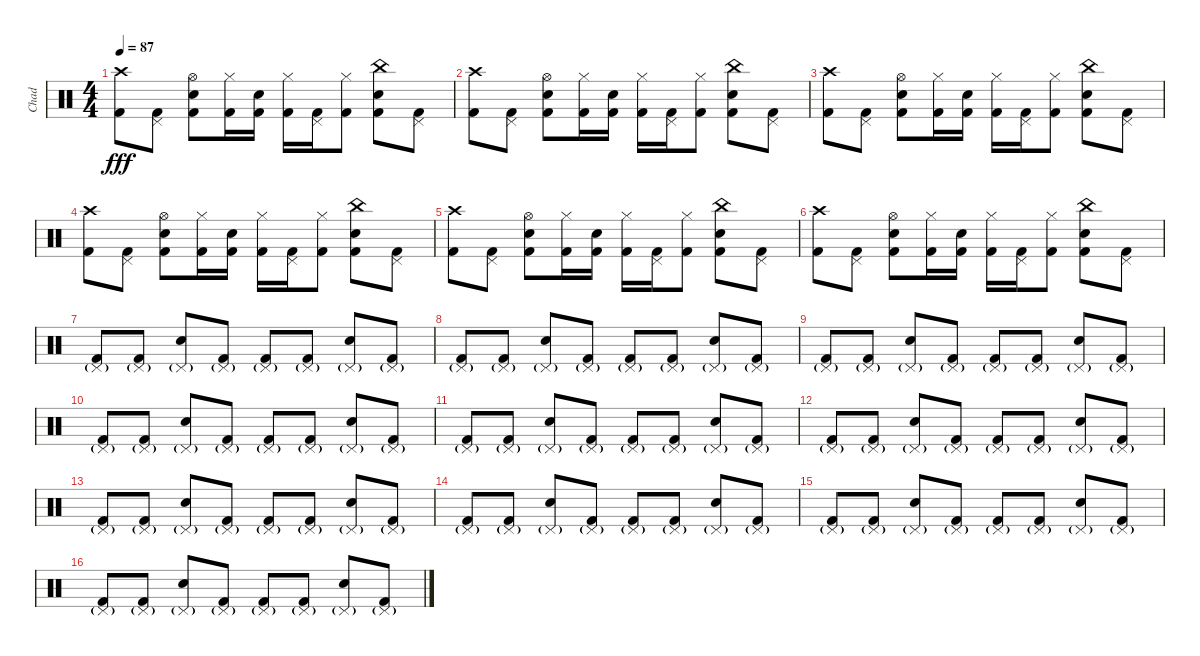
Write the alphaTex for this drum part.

\track ("Chad" "Chad") {instrument percussion}
\staff {score}
\articulation defaults
\ts (4 4)
\tempo 87
\clef neutral
\ks c
("Crash high (hit)" "Kick (hit) 2").8{dy fff} ("Pedal Hi-Hat (hit)" "Kick (hit) 2").8 ("Hi-Hat (open)" "Snare (hit) 2" "Kick (hit) 2").8 ("Hi-Hat (closed)" "Kick (hit) 2").16 ("Snare (hit) 2" "Kick (hit) 2").16 ("Hi-Hat (closed)" "Kick (hit) 2").16 ("Pedal Hi-Hat (hit)" "Kick (hit) 2").16 ("Hi-Hat (closed)" "Kick (hit) 2").8 ("China (hit)" "Snare (hit) 2" "Kick (hit) 2").8 ("Pedal Hi-Hat (hit)" "Kick (hit) 2").8 |
("Crash high (hit)" "Kick (hit) 2").8 ("Pedal Hi-Hat (hit)" "Kick (hit) 2").8 ("Hi-Hat (open)" "Snare (hit) 2" "Kick (hit) 2").8 ("Hi-Hat (closed)" "Kick (hit) 2").16 ("Snare (hit) 2" "Kick (hit) 2").16 ("Hi-Hat (closed)" "Kick (hit) 2").16 ("Pedal Hi-Hat (hit)" "Kick (hit) 2").16 ("Hi-Hat (closed)" "Kick (hit) 2").8 ("China (hit)" "Snare (hit) 2" "Kick (hit) 2").8 ("Pedal Hi-Hat (hit)" "Kick (hit) 2").8 |
("Crash high (hit)" "Kick (hit) 2").8 ("Pedal Hi-Hat (hit)" "Kick (hit) 2").8 ("Hi-Hat (open)" "Snare (hit) 2" "Kick (hit) 2").8 ("Hi-Hat (closed)" "Kick (hit) 2").16 ("Snare (hit) 2" "Kick (hit) 2").16 ("Hi-Hat (closed)" "Kick (hit) 2").16 ("Pedal Hi-Hat (hit)" "Kick (hit) 2").16 ("Hi-Hat (closed)" "Kick (hit) 2").8 ("China (hit)" "Snare (hit) 2" "Kick (hit) 2").8 ("Pedal Hi-Hat (hit)" "Kick (hit) 2").8 |
("Crash high (hit)" "Kick (hit) 2").8 ("Pedal Hi-Hat (hit)" "Kick (hit) 2").8 ("Hi-Hat (open)" "Snare (hit) 2" "Kick (hit) 2").8 ("Hi-Hat (closed)" "Kick (hit) 2").16 ("Snare (hit) 2" "Kick (hit) 2").16 ("Hi-Hat (closed)" "Kick (hit) 2").16 ("Pedal Hi-Hat (hit)" "Kick (hit) 2").16 ("Hi-Hat (closed)" "Kick (hit) 2").8 ("China (hit)" "Snare (hit) 2" "Kick (hit) 2").8 ("Pedal Hi-Hat (hit)" "Kick (hit) 2").8 |
("Crash high (hit)" "Kick (hit) 2").8 ("Pedal Hi-Hat (hit)" "Kick (hit) 2").8 ("Hi-Hat (open)" "Snare (hit) 2" "Kick (hit) 2").8 ("Hi-Hat (closed)" "Kick (hit) 2").16 ("Snare (hit) 2" "Kick (hit) 2").16 ("Hi-Hat (closed)" "Kick (hit) 2").16 ("Pedal Hi-Hat (hit)" "Kick (hit) 2").16 ("Hi-Hat (closed)" "Kick (hit) 2").8 ("China (hit)" "Snare (hit) 2" "Kick (hit) 2").8 ("Pedal Hi-Hat (hit)" "Kick (hit) 2").8 |
("Crash high (hit)" "Kick (hit) 2").8 ("Pedal Hi-Hat (hit)" "Kick (hit) 2").8 ("Hi-Hat (open)" "Snare (hit) 2" "Kick (hit) 2").8 ("Hi-Hat (closed)" "Kick (hit) 2").16 ("Snare (hit) 2" "Kick (hit) 2").16 ("Hi-Hat (closed)" "Kick (hit) 2").16 ("Pedal Hi-Hat (hit)" "Kick (hit) 2").16 ("Hi-Hat (closed)" "Kick (hit) 2").8 ("China (hit)" "Snare (hit) 2" "Kick (hit) 2").8 ("Pedal Hi-Hat (hit)" "Kick (hit) 2").8 |
("Pedal Hi-Hat (hit)"{g} "Kick (hit) 2").8 ("Pedal Hi-Hat (hit)"{g} "Kick (hit) 2").8 ("Pedal Hi-Hat (hit)"{g} "Snare (hit) 2").8 ("Pedal Hi-Hat (hit)"{g} "Kick (hit) 2").8 ("Pedal Hi-Hat (hit)"{g} "Kick (hit) 2").8 ("Pedal Hi-Hat (hit)"{g} "Kick (hit) 2").8 ("Pedal Hi-Hat (hit)"{g} "Snare (hit) 2").8 ("Pedal Hi-Hat (hit)"{g} "Kick (hit) 2").8 |
("Pedal Hi-Hat (hit)"{g} "Kick (hit) 2").8 ("Pedal Hi-Hat (hit)"{g} "Kick (hit) 2").8 ("Pedal Hi-Hat (hit)"{g} "Snare (hit) 2").8 ("Pedal Hi-Hat (hit)"{g} "Kick (hit) 2").8 ("Pedal Hi-Hat (hit)"{g} "Kick (hit) 2").8 ("Pedal Hi-Hat (hit)"{g} "Kick (hit) 2").8 ("Pedal Hi-Hat (hit)"{g} "Snare (hit) 2").8 ("Pedal Hi-Hat (hit)"{g} "Kick (hit) 2").8 |
("Pedal Hi-Hat (hit)"{g} "Kick (hit) 2").8 ("Pedal Hi-Hat (hit)"{g} "Kick (hit) 2").8 ("Pedal Hi-Hat (hit)"{g} "Snare (hit) 2").8 ("Pedal Hi-Hat (hit)"{g} "Kick (hit) 2").8 ("Pedal Hi-Hat (hit)"{g} "Kick (hit) 2").8 ("Pedal Hi-Hat (hit)"{g} "Kick (hit) 2").8 ("Pedal Hi-Hat (hit)"{g} "Snare (hit) 2").8 ("Pedal Hi-Hat (hit)"{g} "Kick (hit) 2").8 |
("Pedal Hi-Hat (hit)"{g} "Kick (hit) 2").8 ("Pedal Hi-Hat (hit)"{g} "Kick (hit) 2").8 ("Pedal Hi-Hat (hit)"{g} "Snare (hit) 2").8 ("Pedal Hi-Hat (hit)"{g} "Kick (hit) 2").8 ("Pedal Hi-Hat (hit)"{g} "Kick (hit) 2").8 ("Pedal Hi-Hat (hit)"{g} "Kick (hit) 2").8 ("Pedal Hi-Hat (hit)"{g} "Snare (hit) 2").8 ("Pedal Hi-Hat (hit)"{g} "Kick (hit) 2").8 |
("Pedal Hi-Hat (hit)"{g} "Kick (hit) 2").8 ("Pedal Hi-Hat (hit)"{g} "Kick (hit) 2").8 ("Pedal Hi-Hat (hit)"{g} "Snare (hit) 2").8 ("Pedal Hi-Hat (hit)"{g} "Kick (hit) 2").8 ("Pedal Hi-Hat (hit)"{g} "Kick (hit) 2").8 ("Pedal Hi-Hat (hit)"{g} "Kick (hit) 2").8 ("Pedal Hi-Hat (hit)"{g} "Snare (hit) 2").8 ("Pedal Hi-Hat (hit)"{g} "Kick (hit) 2").8 |
("Pedal Hi-Hat (hit)"{g} "Kick (hit) 2").8 ("Pedal Hi-Hat (hit)"{g} "Kick (hit) 2").8 ("Pedal Hi-Hat (hit)"{g} "Snare (hit) 2").8 ("Pedal Hi-Hat (hit)"{g} "Kick (hit) 2").8 ("Pedal Hi-Hat (hit)"{g} "Kick (hit) 2").8 ("Pedal Hi-Hat (hit)"{g} "Kick (hit) 2").8 ("Pedal Hi-Hat (hit)"{g} "Snare (hit) 2").8 ("Pedal Hi-Hat (hit)"{g} "Kick (hit) 2").8 |
("Pedal Hi-Hat (hit)"{g} "Kick (hit) 2").8 ("Pedal Hi-Hat (hit)"{g} "Kick (hit) 2").8 ("Pedal Hi-Hat (hit)"{g} "Snare (hit) 2").8 ("Pedal Hi-Hat (hit)"{g} "Kick (hit) 2").8 ("Pedal Hi-Hat (hit)"{g} "Kick (hit) 2").8 ("Pedal Hi-Hat (hit)"{g} "Kick (hit) 2").8 ("Pedal Hi-Hat (hit)"{g} "Snare (hit) 2").8 ("Pedal Hi-Hat (hit)"{g} "Kick (hit) 2").8 |
("Pedal Hi-Hat (hit)"{g} "Kick (hit) 2").8 ("Pedal Hi-Hat (hit)"{g} "Kick (hit) 2").8 ("Pedal Hi-Hat (hit)"{g} "Snare (hit) 2").8 ("Pedal Hi-Hat (hit)"{g} "Kick (hit) 2").8 ("Pedal Hi-Hat (hit)"{g} "Kick (hit) 2").8 ("Pedal Hi-Hat (hit)"{g} "Kick (hit) 2").8 ("Pedal Hi-Hat (hit)"{g} "Snare (hit) 2").8 ("Pedal Hi-Hat (hit)"{g} "Kick (hit) 2").8 |
("Pedal Hi-Hat (hit)"{g} "Kick (hit) 2").8 ("Pedal Hi-Hat (hit)"{g} "Kick (hit) 2").8 ("Pedal Hi-Hat (hit)"{g} "Snare (hit) 2").8 ("Pedal Hi-Hat (hit)"{g} "Kick (hit) 2").8 ("Pedal Hi-Hat (hit)"{g} "Kick (hit) 2").8 ("Pedal Hi-Hat (hit)"{g} "Kick (hit) 2").8 ("Pedal Hi-Hat (hit)"{g} "Snare (hit) 2").8 ("Pedal Hi-Hat (hit)"{g} "Kick (hit) 2").8 |
("Pedal Hi-Hat (hit)"{g} "Kick (hit) 2").8 ("Pedal Hi-Hat (hit)"{g} "Kick (hit) 2").8 ("Pedal Hi-Hat (hit)"{g} "Snare (hit) 2").8 ("Pedal Hi-Hat (hit)"{g} "Kick (hit) 2").8 ("Pedal Hi-Hat (hit)"{g} "Kick (hit) 2").8 ("Pedal Hi-Hat (hit)"{g} "Kick (hit) 2").8 ("Pedal Hi-Hat (hit)"{g} "Snare (hit) 2").8 ("Pedal Hi-Hat (hit)"{g} "Kick (hit) 2").8
